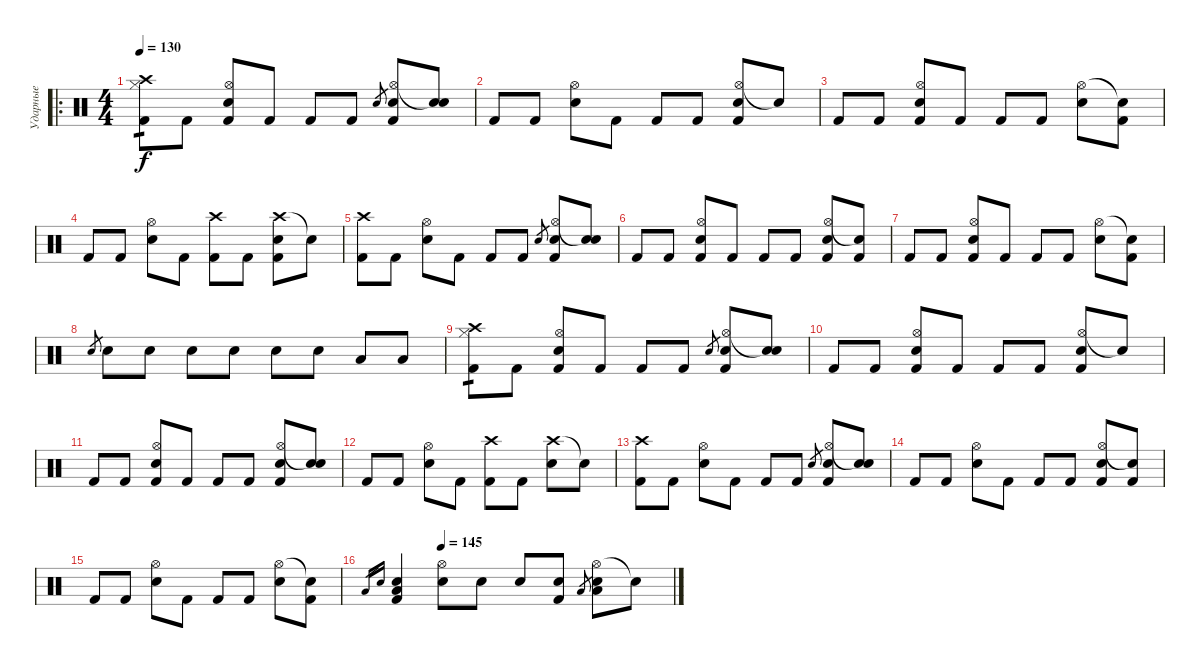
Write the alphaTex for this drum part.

\track ("Ударные" "Ударные") {instrument percussion}
\staff {score}
\articulation defaults
\ro
\ts (4 4)
\tempo 130
\clef neutral
\ks c
("Hi-Hat (closed)" "Crash high (hit)" "Kick (hit) 2").8{tp 1 dy f} "Kick (hit) 2".8 ("Hi-Hat (open)" "Snare (hit) 2" "Kick (hit) 2").8 "Kick (hit) 2".8 "Kick (hit) 2".8 "Kick (hit) 2".8 "Snare (hit) 2".8{gr} ("Hi-Hat (open)" "Snare (hit) 2" "Kick (hit) 2").8 ("Snare (hit)"{t} "Snare (hit) 2").8 |
"Kick (hit) 2".8 "Kick (hit) 2".8 ("Hi-Hat (open)" "Snare (hit) 2").8 "Kick (hit) 2".8 "Kick (hit) 2".8 "Kick (hit) 2".8 ("Hi-Hat (open)" "Snare (hit) 2" "Kick (hit) 2").8 "Snare (hit)"{t}.8 |
"Kick (hit) 2".8 "Kick (hit) 2".8 ("Hi-Hat (open)" "Snare (hit) 2" "Kick (hit) 2").8 "Kick (hit) 2".8 "Kick (hit) 2".8 "Kick (hit) 2".8 ("Hi-Hat (open)" "Snare (hit) 2").8 ("Snare (hit)"{t} "Kick (hit) 2").8 |
"Kick (hit) 2".8 "Kick (hit) 2".8 ("Hi-Hat (open)" "Snare (hit) 2").8 "Kick (hit) 2".8 ("Crash high (hit)" "Kick (hit) 2").8 "Kick (hit) 2".8 ("Crash high (hit)" "Snare (hit) 2" "Kick (hit) 2").8 "Snare (hit)"{t}.8 |
("Crash high (hit)" "Kick (hit) 2").8 "Kick (hit) 2".8 ("Hi-Hat (open)" "Snare (hit) 2").8 "Kick (hit) 2".8 "Kick (hit) 2".8 "Kick (hit) 2".8 "Snare (hit) 2".8{gr} ("Hi-Hat (open)" "Snare (hit) 2" "Kick (hit) 2").8 ("Snare (hit)"{t} "Snare (hit) 2").8 |
"Kick (hit) 2".8 "Kick (hit) 2".8 ("Hi-Hat (open)" "Snare (hit) 2" "Kick (hit) 2").8 "Kick (hit) 2".8 "Kick (hit) 2".8 "Kick (hit) 2".8 ("Hi-Hat (open)" "Snare (hit) 2" "Kick (hit) 2").8 ("Snare (hit)"{t} "Kick (hit) 2").8 |
"Kick (hit) 2".8 "Kick (hit) 2".8 ("Hi-Hat (open)" "Snare (hit) 2" "Kick (hit) 2").8 "Kick (hit) 2".8 "Kick (hit) 2".8 "Kick (hit) 2".8 ("Hi-Hat (open)" "Snare (hit) 2").8 ("Snare (hit)"{t} "Kick (hit) 2").8 |
"Snare (hit) 2".8{gr} "Snare (hit) 2".8 "Snare (hit) 2".8 "Snare (hit) 2".8 "Snare (hit) 2".8 "Electric Snare (hit)".8 "Electric Snare (hit)".8 "Low Floor Tom (hit)".8 "Low Floor Tom (hit)".8 |
("Hi-Hat (closed)" "Crash high (hit)" "Kick (hit) 2").8{tp 1} "Kick (hit) 2".8 ("Hi-Hat (open)" "Snare (hit) 2" "Kick (hit) 2").8 "Kick (hit) 2".8 "Kick (hit) 2".8 "Kick (hit) 2".8 "Snare (hit) 2".8{gr} ("Hi-Hat (open)" "Snare (hit) 2" "Kick (hit) 2").8 ("Snare (hit)"{t} "Snare (hit) 2").8 |
"Kick (hit) 2".8 "Kick (hit) 2".8 ("Hi-Hat (open)" "Snare (hit) 2" "Kick (hit) 2").8 "Kick (hit) 2".8 "Kick (hit) 2".8 "Kick (hit) 2".8 ("Hi-Hat (open)" "Snare (hit) 2" "Kick (hit) 2").8 "Snare (hit)"{t}.8 |
"Kick (hit) 2".8 "Kick (hit) 2".8 ("Hi-Hat (open)" "Snare (hit) 2" "Kick (hit) 2").8 "Kick (hit) 2".8 "Kick (hit) 2".8 "Kick (hit) 2".8 ("Hi-Hat (open)" "Snare (hit) 2" "Kick (hit) 2").8 ("Snare (hit)"{t} "Snare (hit) 2").8 |
"Kick (hit) 2".8 "Kick (hit) 2".8 ("Hi-Hat (open)" "Snare (hit) 2").8 "Kick (hit) 2".8 ("Crash high (hit)" "Kick (hit) 2").8 "Kick (hit) 2".8 ("Crash high (hit)" "Snare (hit) 2").8 "Snare (hit)"{t}.8 |
("Crash high (hit)" "Kick (hit) 2").8 "Kick (hit) 2".8 ("Hi-Hat (open)" "Snare (hit) 2").8 "Kick (hit) 2".8 "Kick (hit) 2".8 "Kick (hit) 2".8 "Snare (hit) 2".8{gr} ("Hi-Hat (open)" "Snare (hit) 2" "Kick (hit) 2").8 ("Snare (hit)"{t} "Snare (hit) 2").8 |
"Kick (hit) 2".8 "Kick (hit) 2".8 ("Hi-Hat (open)" "Snare (hit) 2").8 "Kick (hit) 2".8 "Kick (hit) 2".8 "Kick (hit) 2".8 ("Hi-Hat (open)" "Snare (hit) 2" "Kick (hit) 2").8 ("Snare (hit)"{t} "Kick (hit) 2").8 |
"Kick (hit) 2".8 "Kick (hit) 2".8 ("Hi-Hat (open)" "Snare (hit) 2").8 "Kick (hit) 2".8 "Kick (hit) 2".8 "Kick (hit) 2".8 ("Hi-Hat (open)" "Snare (hit) 2").8 ("Snare (hit)"{t} "Kick (hit) 2").8 |
\tempo (145 0.25)
"Low Floor Tom (hit)".16{gr} "Snare (hit) 2".16{gr} ("Low Floor Tom (hit)" "Snare (hit) 2" "Kick (hit) 2").4 ("Hi-Hat (open)" "Snare (hit) 2").8 "Snare (hit) 2".8 "Snare (hit) 2".8 ("Snare (hit) 2" "Kick (hit) 2").8 "Low Floor Tom (hit)".8{gr} ("Hi-Hat (open)" "Low Floor Tom (hit)" "Snare (hit) 2").8 "Snare (hit)"{t}.8
